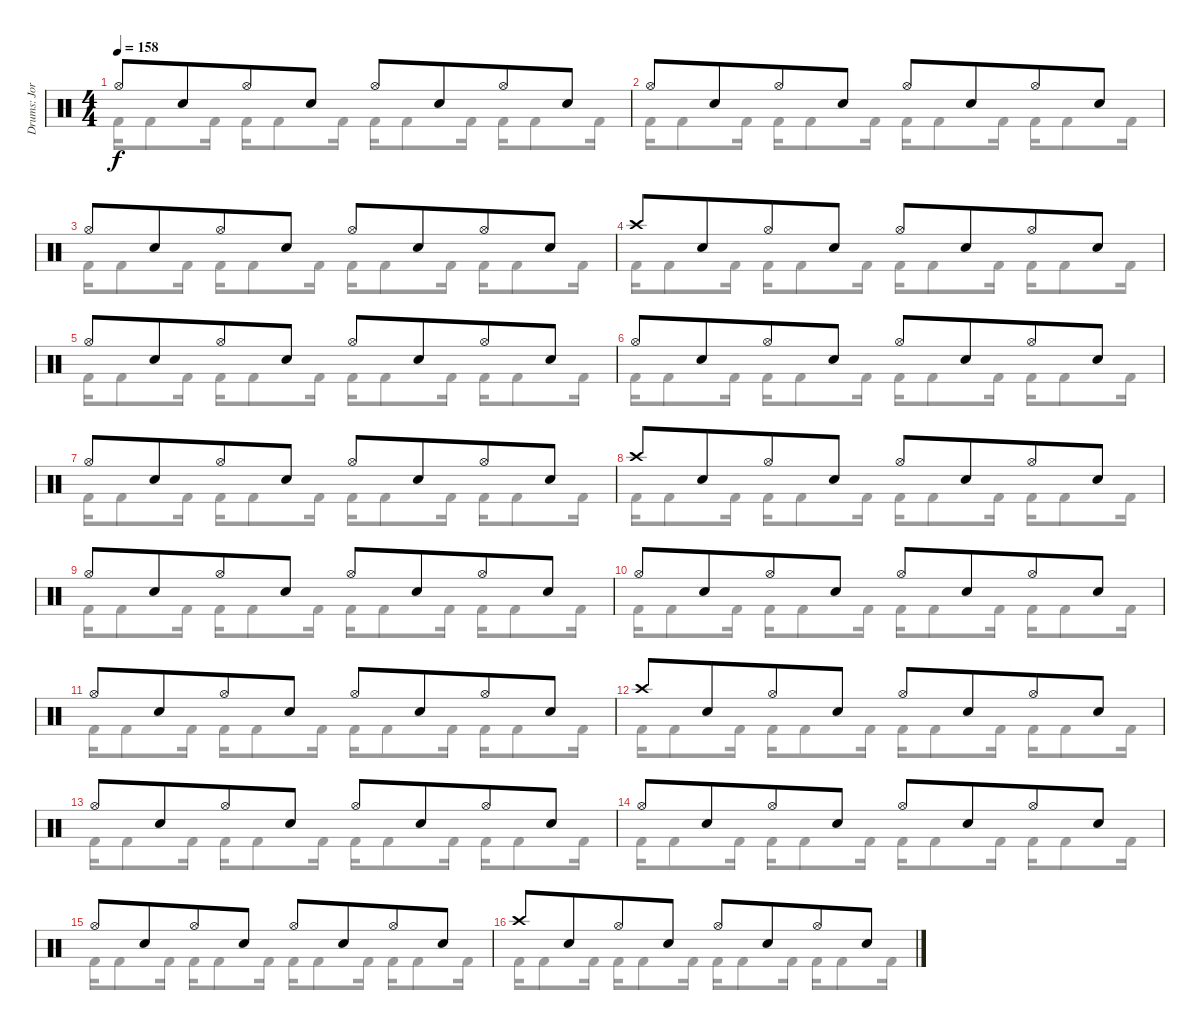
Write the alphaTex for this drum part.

\track ("Drums: Jorg" "Drums: Jor") {instrument percussion}
\staff {score}
\articulation defaults
\voice
\ts (4 4)
\tempo 158
\clef neutral
\ks c "Hi-Hat (open)".8{dy f} "Snare (hit) 2".8{beam merge} "Hi-Hat (open)".8 "Snare (hit) 2".8 "Hi-Hat (open)".8 "Snare (hit) 2".8{beam merge} "Hi-Hat (open)".8 "Snare (hit) 2".8
|
"Hi-Hat (open)".8 "Snare (hit) 2".8{beam merge} "Hi-Hat (open)".8 "Snare (hit) 2".8 "Hi-Hat (open)".8 "Snare (hit) 2".8{beam merge} "Hi-Hat (open)".8 "Snare (hit) 2".8 |
"Hi-Hat (open)".8 "Snare (hit) 2".8{beam merge} "Hi-Hat (open)".8 "Snare (hit) 2".8 "Hi-Hat (open)".8 "Snare (hit) 2".8{beam merge} "Hi-Hat (open)".8 "Snare (hit) 2".8 |
"Crash high (hit)".8 "Snare (hit) 2".8{beam merge} "Hi-Hat (open)".8 "Snare (hit) 2".8 "Hi-Hat (open)".8 "Snare (hit) 2".8{beam merge} "Hi-Hat (open)".8 "Snare (hit) 2".8 |
"Hi-Hat (open)".8 "Snare (hit) 2".8{beam merge} "Hi-Hat (open)".8 "Snare (hit) 2".8 "Hi-Hat (open)".8 "Snare (hit) 2".8{beam merge} "Hi-Hat (open)".8 "Snare (hit) 2".8 |
"Hi-Hat (open)".8 "Snare (hit) 2".8{beam merge} "Hi-Hat (open)".8 "Snare (hit) 2".8 "Hi-Hat (open)".8 "Snare (hit) 2".8{beam merge} "Hi-Hat (open)".8 "Snare (hit) 2".8 |
"Hi-Hat (open)".8 "Snare (hit) 2".8{beam merge} "Hi-Hat (open)".8 "Snare (hit) 2".8 "Hi-Hat (open)".8 "Snare (hit) 2".8{beam merge} "Hi-Hat (open)".8 "Snare (hit) 2".8 |
"Crash high (hit)".8 "Snare (hit) 2".8{beam merge} "Hi-Hat (open)".8 "Snare (hit) 2".8 "Hi-Hat (open)".8 "Snare (hit) 2".8{beam merge} "Hi-Hat (open)".8 "Snare (hit) 2".8 |
"Hi-Hat (open)".8 "Snare (hit) 2".8{beam merge} "Hi-Hat (open)".8 "Snare (hit) 2".8 "Hi-Hat (open)".8 "Snare (hit) 2".8{beam merge} "Hi-Hat (open)".8 "Snare (hit) 2".8 |
"Hi-Hat (open)".8 "Snare (hit) 2".8{beam merge} "Hi-Hat (open)".8 "Snare (hit) 2".8 "Hi-Hat (open)".8 "Snare (hit) 2".8{beam merge} "Hi-Hat (open)".8 "Snare (hit) 2".8 |
"Hi-Hat (open)".8 "Snare (hit) 2".8{beam merge} "Hi-Hat (open)".8 "Snare (hit) 2".8 "Hi-Hat (open)".8 "Snare (hit) 2".8{beam merge} "Hi-Hat (open)".8 "Snare (hit) 2".8 |
"Crash high (hit)".8 "Snare (hit) 2".8{beam merge} "Hi-Hat (open)".8 "Snare (hit) 2".8 "Hi-Hat (open)".8 "Snare (hit) 2".8{beam merge} "Hi-Hat (open)".8 "Snare (hit) 2".8 |
"Hi-Hat (open)".8 "Snare (hit) 2".8{beam merge} "Hi-Hat (open)".8 "Snare (hit) 2".8 "Hi-Hat (open)".8 "Snare (hit) 2".8{beam merge} "Hi-Hat (open)".8 "Snare (hit) 2".8 |
"Hi-Hat (open)".8 "Snare (hit) 2".8{beam merge} "Hi-Hat (open)".8 "Snare (hit) 2".8 "Hi-Hat (open)".8 "Snare (hit) 2".8{beam merge} "Hi-Hat (open)".8 "Snare (hit) 2".8 |
"Hi-Hat (open)".8 "Snare (hit) 2".8{beam merge} "Hi-Hat (open)".8 "Snare (hit) 2".8 "Hi-Hat (open)".8 "Snare (hit) 2".8{beam merge} "Hi-Hat (open)".8 "Snare (hit) 2".8 |
"Crash high (hit)".8 "Snare (hit) 2".8{beam merge} "Hi-Hat (open)".8 "Snare (hit) 2".8 "Hi-Hat (open)".8 "Snare (hit) 2".8{beam merge} "Hi-Hat (open)".8 "Snare (hit) 2".8
\voice
\clef neutral
\ottava regular
\simile none
\ks c "Kick (hit) 2".16{dy f} "Kick (hit) 2".8 "Kick (hit) 2".16 "Kick (hit) 2".16 "Kick (hit) 2".8 "Kick (hit) 2".16 "Kick (hit) 2".16 "Kick (hit) 2".8 "Kick (hit) 2".16 "Kick (hit) 2".16 "Kick (hit) 2".8 "Kick (hit) 2".16
|
"Kick (hit) 2".16 "Kick (hit) 2".8 "Kick (hit) 2".16 "Kick (hit) 2".16 "Kick (hit) 2".8 "Kick (hit) 2".16 "Kick (hit) 2".16 "Kick (hit) 2".8 "Kick (hit) 2".16 "Kick (hit) 2".16 "Kick (hit) 2".8 "Kick (hit) 2".16 |
"Kick (hit) 2".16 "Kick (hit) 2".8 "Kick (hit) 2".16 "Kick (hit) 2".16 "Kick (hit) 2".8 "Kick (hit) 2".16 "Kick (hit) 2".16 "Kick (hit) 2".8 "Kick (hit) 2".16 "Kick (hit) 2".16 "Kick (hit) 2".8 "Kick (hit) 2".16 |
"Kick (hit) 2".16 "Kick (hit) 2".8 "Kick (hit) 2".16 "Kick (hit) 2".16 "Kick (hit) 2".8 "Kick (hit) 2".16 "Kick (hit) 2".16 "Kick (hit) 2".8 "Kick (hit) 2".16 "Kick (hit) 2".16 "Kick (hit) 2".8 "Kick (hit) 2".16 |
"Kick (hit) 2".16 "Kick (hit) 2".8 "Kick (hit) 2".16 "Kick (hit) 2".16 "Kick (hit) 2".8 "Kick (hit) 2".16 "Kick (hit) 2".16 "Kick (hit) 2".8 "Kick (hit) 2".16 "Kick (hit) 2".16 "Kick (hit) 2".8 "Kick (hit) 2".16 |
"Kick (hit) 2".16 "Kick (hit) 2".8 "Kick (hit) 2".16 "Kick (hit) 2".16 "Kick (hit) 2".8 "Kick (hit) 2".16 "Kick (hit) 2".16 "Kick (hit) 2".8 "Kick (hit) 2".16 "Kick (hit) 2".16 "Kick (hit) 2".8 "Kick (hit) 2".16 |
"Kick (hit) 2".16 "Kick (hit) 2".8 "Kick (hit) 2".16 "Kick (hit) 2".16 "Kick (hit) 2".8 "Kick (hit) 2".16 "Kick (hit) 2".16 "Kick (hit) 2".8 "Kick (hit) 2".16 "Kick (hit) 2".16 "Kick (hit) 2".8 "Kick (hit) 2".16 |
"Kick (hit) 2".16 "Kick (hit) 2".8 "Kick (hit) 2".16 "Kick (hit) 2".16 "Kick (hit) 2".8 "Kick (hit) 2".16 "Kick (hit) 2".16 "Kick (hit) 2".8 "Kick (hit) 2".16 "Kick (hit) 2".16 "Kick (hit) 2".8 "Kick (hit) 2".16 |
"Kick (hit) 2".16 "Kick (hit) 2".8 "Kick (hit) 2".16 "Kick (hit) 2".16 "Kick (hit) 2".8 "Kick (hit) 2".16 "Kick (hit) 2".16 "Kick (hit) 2".8 "Kick (hit) 2".16 "Kick (hit) 2".16 "Kick (hit) 2".8 "Kick (hit) 2".16 |
"Kick (hit) 2".16 "Kick (hit) 2".8 "Kick (hit) 2".16 "Kick (hit) 2".16 "Kick (hit) 2".8 "Kick (hit) 2".16 "Kick (hit) 2".16 "Kick (hit) 2".8 "Kick (hit) 2".16 "Kick (hit) 2".16 "Kick (hit) 2".8 "Kick (hit) 2".16 |
"Kick (hit) 2".16 "Kick (hit) 2".8 "Kick (hit) 2".16 "Kick (hit) 2".16 "Kick (hit) 2".8 "Kick (hit) 2".16 "Kick (hit) 2".16 "Kick (hit) 2".8 "Kick (hit) 2".16 "Kick (hit) 2".16 "Kick (hit) 2".8 "Kick (hit) 2".16 |
"Kick (hit) 2".16 "Kick (hit) 2".8 "Kick (hit) 2".16 "Kick (hit) 2".16 "Kick (hit) 2".8 "Kick (hit) 2".16 "Kick (hit) 2".16 "Kick (hit) 2".8 "Kick (hit) 2".16 "Kick (hit) 2".16 "Kick (hit) 2".8 "Kick (hit) 2".16 |
"Kick (hit) 2".16 "Kick (hit) 2".8 "Kick (hit) 2".16 "Kick (hit) 2".16 "Kick (hit) 2".8 "Kick (hit) 2".16 "Kick (hit) 2".16 "Kick (hit) 2".8 "Kick (hit) 2".16 "Kick (hit) 2".16 "Kick (hit) 2".8 "Kick (hit) 2".16 |
"Kick (hit) 2".16 "Kick (hit) 2".8 "Kick (hit) 2".16 "Kick (hit) 2".16 "Kick (hit) 2".8 "Kick (hit) 2".16 "Kick (hit) 2".16 "Kick (hit) 2".8 "Kick (hit) 2".16 "Kick (hit) 2".16 "Kick (hit) 2".8 "Kick (hit) 2".16 |
"Kick (hit) 2".16 "Kick (hit) 2".8 "Kick (hit) 2".16 "Kick (hit) 2".16 "Kick (hit) 2".8 "Kick (hit) 2".16 "Kick (hit) 2".16 "Kick (hit) 2".8 "Kick (hit) 2".16 "Kick (hit) 2".16 "Kick (hit) 2".8 "Kick (hit) 2".16 |
"Kick (hit) 2".16 "Kick (hit) 2".8 "Kick (hit) 2".16 "Kick (hit) 2".16 "Kick (hit) 2".8 "Kick (hit) 2".16 "Kick (hit) 2".16 "Kick (hit) 2".8 "Kick (hit) 2".16 "Kick (hit) 2".16 "Kick (hit) 2".8 "Kick (hit) 2".16
